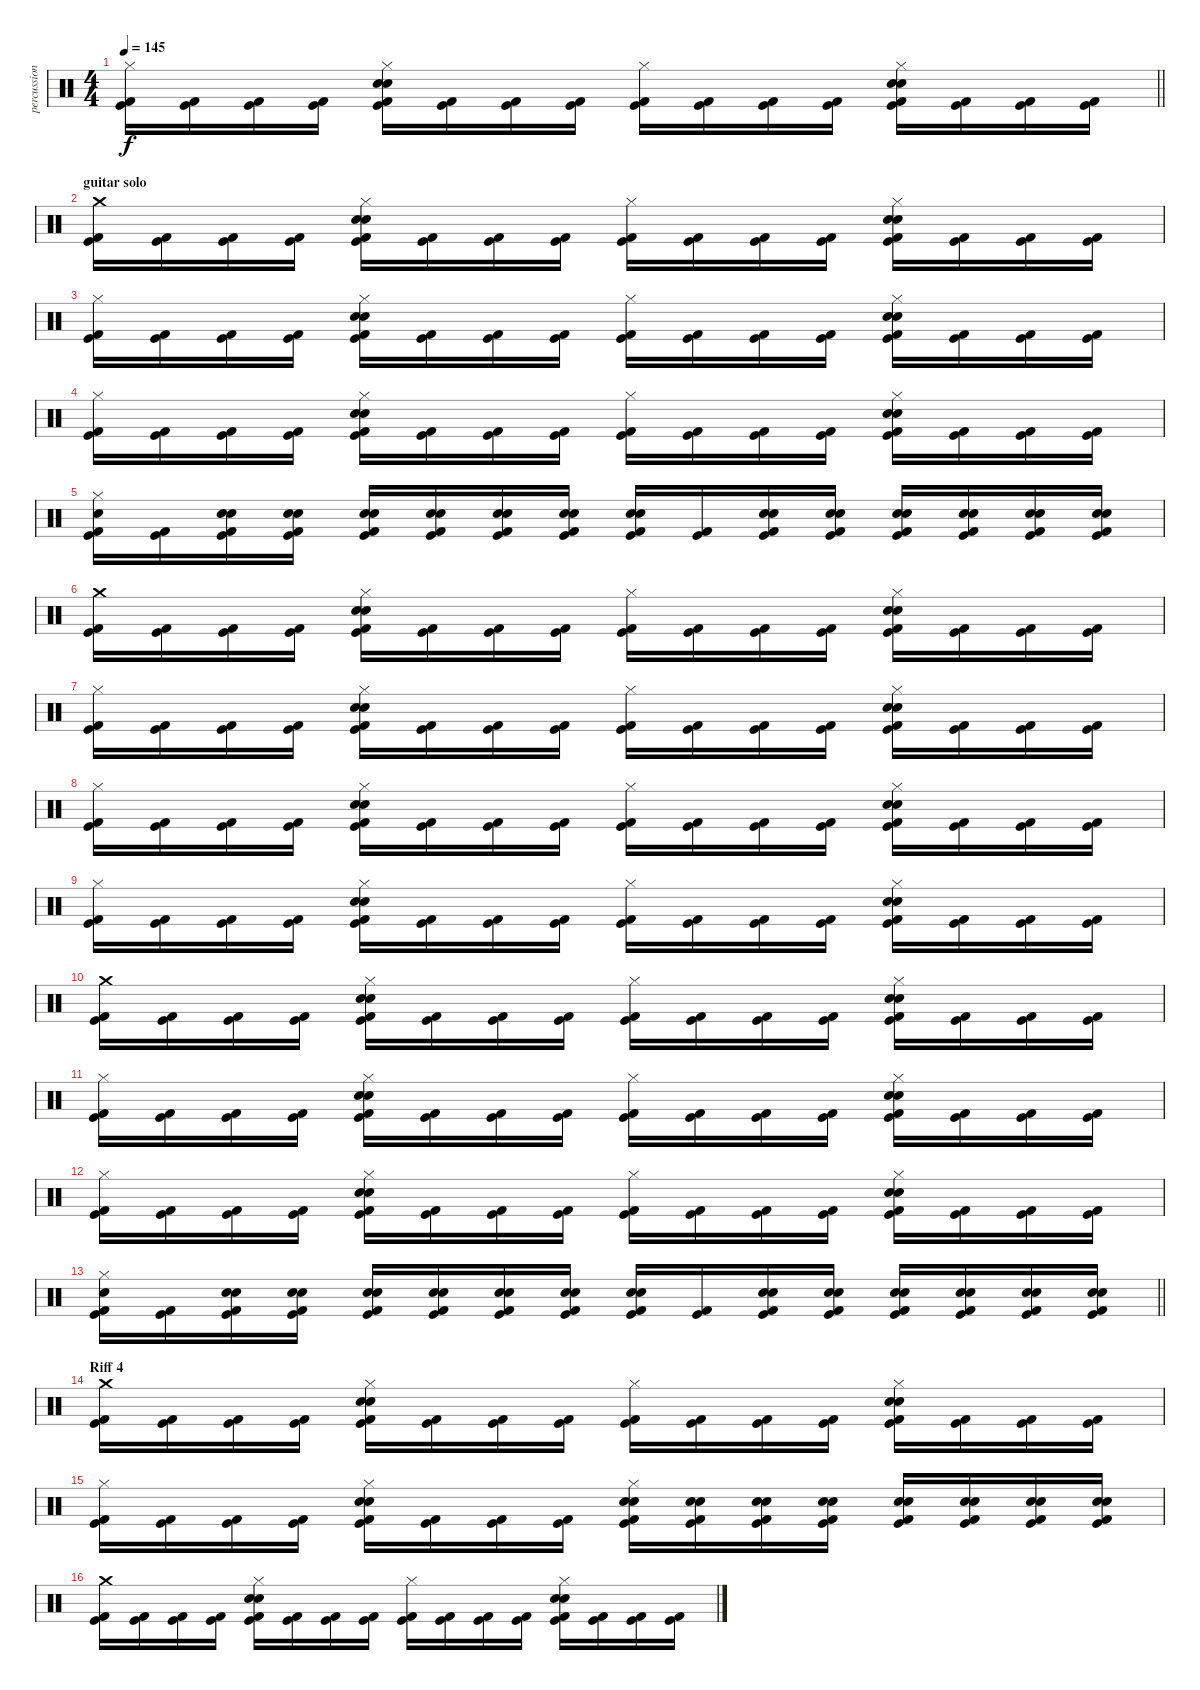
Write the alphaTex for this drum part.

\track ("percussion" "percussion") {instrument percussion}
\staff {score}
\articulation defaults
\ts (4 4)
\tempo 145
\clef neutral
\barLineRight lightlight
\ks c
("Hi-Hat (closed)" "Kick (hit) 2" "Kick (hit)").16{dy f} ("Kick (hit) 2" "Kick (hit)").16 ("Kick (hit) 2" "Kick (hit)").16 ("Kick (hit) 2" "Kick (hit)").16 ("Hi-Hat (closed)" "Electric Snare (hit)" "Snare (hit) 2" "Kick (hit) 2" "Kick (hit)").16 ("Kick (hit) 2" "Kick (hit)").16 ("Kick (hit) 2" "Kick (hit)").16 ("Kick (hit) 2" "Kick (hit)").16 ("Hi-Hat (closed)" "Kick (hit) 2" "Kick (hit)").16 ("Kick (hit) 2" "Kick (hit)").16 ("Kick (hit) 2" "Kick (hit)").16 ("Kick (hit) 2" "Kick (hit)").16 ("Hi-Hat (closed)" "Electric Snare (hit)" "Snare (hit) 2" "Kick (hit) 2" "Kick (hit)").16 ("Kick (hit) 2" "Kick (hit)").16 ("Kick (hit) 2" "Kick (hit)").16 ("Kick (hit) 2" "Kick (hit)").16 |
\section ("" "guitar solo")
("Crash medium (hit)" "Kick (hit) 2" "Kick (hit)").16 ("Kick (hit) 2" "Kick (hit)").16 ("Kick (hit) 2" "Kick (hit)").16 ("Kick (hit) 2" "Kick (hit)").16 ("Hi-Hat (closed)" "Electric Snare (hit)" "Snare (hit) 2" "Kick (hit) 2" "Kick (hit)").16 ("Kick (hit) 2" "Kick (hit)").16 ("Kick (hit) 2" "Kick (hit)").16 ("Kick (hit) 2" "Kick (hit)").16 ("Hi-Hat (closed)" "Kick (hit) 2" "Kick (hit)").16 ("Kick (hit) 2" "Kick (hit)").16 ("Kick (hit) 2" "Kick (hit)").16 ("Kick (hit) 2" "Kick (hit)").16 ("Hi-Hat (closed)" "Electric Snare (hit)" "Snare (hit) 2" "Kick (hit) 2" "Kick (hit)").16 ("Kick (hit) 2" "Kick (hit)").16 ("Kick (hit) 2" "Kick (hit)").16 ("Kick (hit) 2" "Kick (hit)").16 |
("Hi-Hat (closed)" "Kick (hit) 2" "Kick (hit)").16 ("Kick (hit) 2" "Kick (hit)").16 ("Kick (hit) 2" "Kick (hit)").16 ("Kick (hit) 2" "Kick (hit)").16 ("Hi-Hat (closed)" "Electric Snare (hit)" "Snare (hit) 2" "Kick (hit) 2" "Kick (hit)").16 ("Kick (hit) 2" "Kick (hit)").16 ("Kick (hit) 2" "Kick (hit)").16 ("Kick (hit) 2" "Kick (hit)").16 ("Hi-Hat (closed)" "Kick (hit) 2" "Kick (hit)").16 ("Kick (hit) 2" "Kick (hit)").16 ("Kick (hit) 2" "Kick (hit)").16 ("Kick (hit) 2" "Kick (hit)").16 ("Hi-Hat (closed)" "Electric Snare (hit)" "Snare (hit) 2" "Kick (hit) 2" "Kick (hit)").16 ("Kick (hit) 2" "Kick (hit)").16 ("Kick (hit) 2" "Kick (hit)").16 ("Kick (hit) 2" "Kick (hit)").16 |
("Hi-Hat (closed)" "Kick (hit) 2" "Kick (hit)").16 ("Kick (hit) 2" "Kick (hit)").16 ("Kick (hit) 2" "Kick (hit)").16 ("Kick (hit) 2" "Kick (hit)").16 ("Hi-Hat (closed)" "Electric Snare (hit)" "Snare (hit) 2" "Kick (hit) 2" "Kick (hit)").16 ("Kick (hit) 2" "Kick (hit)").16 ("Kick (hit) 2" "Kick (hit)").16 ("Kick (hit) 2" "Kick (hit)").16 ("Hi-Hat (closed)" "Kick (hit) 2" "Kick (hit)").16 ("Kick (hit) 2" "Kick (hit)").16 ("Kick (hit) 2" "Kick (hit)").16 ("Kick (hit) 2" "Kick (hit)").16 ("Hi-Hat (closed)" "Electric Snare (hit)" "Snare (hit) 2" "Kick (hit) 2" "Kick (hit)").16 ("Kick (hit) 2" "Kick (hit)").16 ("Kick (hit) 2" "Kick (hit)").16 ("Kick (hit) 2" "Kick (hit)").16 |
("Hi-Hat (closed)" "Electric Snare (hit)" "Kick (hit) 2" "Kick (hit)").16 ("Kick (hit) 2" "Kick (hit)").16 ("Electric Snare (hit)" "Snare (hit) 2" "Kick (hit) 2" "Kick (hit)").16 ("Electric Snare (hit)" "Snare (hit) 2" "Kick (hit) 2" "Kick (hit)").16 ("Electric Snare (hit)" "Snare (hit) 2" "Kick (hit) 2" "Kick (hit)").16 ("Electric Snare (hit)" "Snare (hit) 2" "Kick (hit) 2" "Kick (hit)").16 ("Electric Snare (hit)" "Snare (hit) 2" "Kick (hit) 2" "Kick (hit)").16 ("Electric Snare (hit)" "Snare (hit) 2" "Kick (hit) 2" "Kick (hit)").16 ("Electric Snare (hit)" "Snare (hit) 2" "Kick (hit) 2" "Kick (hit)").16 ("Kick (hit) 2" "Kick (hit)").16 ("Electric Snare (hit)" "Snare (hit) 2" "Kick (hit) 2" "Kick (hit)").16 ("Electric Snare (hit)" "Snare (hit) 2" "Kick (hit) 2" "Kick (hit)").16 ("Electric Snare (hit)" "Snare (hit) 2" "Kick (hit) 2" "Kick (hit)").16 ("Electric Snare (hit)" "Snare (hit) 2" "Kick (hit) 2" "Kick (hit)").16 ("Electric Snare (hit)" "Snare (hit) 2" "Kick (hit) 2" "Kick (hit)").16 ("Electric Snare (hit)" "Snare (hit) 2" "Kick (hit) 2" "Kick (hit)").16 |
("Crash medium (hit)" "Kick (hit) 2" "Kick (hit)").16 ("Kick (hit) 2" "Kick (hit)").16 ("Kick (hit) 2" "Kick (hit)").16 ("Kick (hit) 2" "Kick (hit)").16 ("Hi-Hat (closed)" "Electric Snare (hit)" "Snare (hit) 2" "Kick (hit) 2" "Kick (hit)").16 ("Kick (hit) 2" "Kick (hit)").16 ("Kick (hit) 2" "Kick (hit)").16 ("Kick (hit) 2" "Kick (hit)").16 ("Hi-Hat (closed)" "Kick (hit) 2" "Kick (hit)").16 ("Kick (hit) 2" "Kick (hit)").16 ("Kick (hit) 2" "Kick (hit)").16 ("Kick (hit) 2" "Kick (hit)").16 ("Hi-Hat (closed)" "Electric Snare (hit)" "Snare (hit) 2" "Kick (hit) 2" "Kick (hit)").16 ("Kick (hit) 2" "Kick (hit)").16 ("Kick (hit) 2" "Kick (hit)").16 ("Kick (hit) 2" "Kick (hit)").16 |
("Hi-Hat (closed)" "Kick (hit) 2" "Kick (hit)").16 ("Kick (hit) 2" "Kick (hit)").16 ("Kick (hit) 2" "Kick (hit)").16 ("Kick (hit) 2" "Kick (hit)").16 ("Hi-Hat (closed)" "Electric Snare (hit)" "Snare (hit) 2" "Kick (hit) 2" "Kick (hit)").16 ("Kick (hit) 2" "Kick (hit)").16 ("Kick (hit) 2" "Kick (hit)").16 ("Kick (hit) 2" "Kick (hit)").16 ("Hi-Hat (closed)" "Kick (hit) 2" "Kick (hit)").16 ("Kick (hit) 2" "Kick (hit)").16 ("Kick (hit) 2" "Kick (hit)").16 ("Kick (hit) 2" "Kick (hit)").16 ("Hi-Hat (closed)" "Electric Snare (hit)" "Snare (hit) 2" "Kick (hit) 2" "Kick (hit)").16 ("Kick (hit) 2" "Kick (hit)").16 ("Kick (hit) 2" "Kick (hit)").16 ("Kick (hit) 2" "Kick (hit)").16 |
("Hi-Hat (closed)" "Kick (hit) 2" "Kick (hit)").16 ("Kick (hit) 2" "Kick (hit)").16 ("Kick (hit) 2" "Kick (hit)").16 ("Kick (hit) 2" "Kick (hit)").16 ("Hi-Hat (closed)" "Electric Snare (hit)" "Snare (hit) 2" "Kick (hit) 2" "Kick (hit)").16 ("Kick (hit) 2" "Kick (hit)").16 ("Kick (hit) 2" "Kick (hit)").16 ("Kick (hit) 2" "Kick (hit)").16 ("Hi-Hat (closed)" "Kick (hit) 2" "Kick (hit)").16 ("Kick (hit) 2" "Kick (hit)").16 ("Kick (hit) 2" "Kick (hit)").16 ("Kick (hit) 2" "Kick (hit)").16 ("Hi-Hat (closed)" "Electric Snare (hit)" "Snare (hit) 2" "Kick (hit) 2" "Kick (hit)").16 ("Kick (hit) 2" "Kick (hit)").16 ("Kick (hit) 2" "Kick (hit)").16 ("Kick (hit) 2" "Kick (hit)").16 |
("Hi-Hat (closed)" "Kick (hit) 2" "Kick (hit)").16 ("Kick (hit) 2" "Kick (hit)").16 ("Kick (hit) 2" "Kick (hit)").16 ("Kick (hit) 2" "Kick (hit)").16 ("Hi-Hat (closed)" "Electric Snare (hit)" "Snare (hit) 2" "Kick (hit) 2" "Kick (hit)").16 ("Kick (hit) 2" "Kick (hit)").16 ("Kick (hit) 2" "Kick (hit)").16 ("Kick (hit) 2" "Kick (hit)").16 ("Hi-Hat (closed)" "Kick (hit) 2" "Kick (hit)").16 ("Kick (hit) 2" "Kick (hit)").16 ("Kick (hit) 2" "Kick (hit)").16 ("Kick (hit) 2" "Kick (hit)").16 ("Hi-Hat (closed)" "Electric Snare (hit)" "Snare (hit) 2" "Kick (hit) 2" "Kick (hit)").16 ("Kick (hit) 2" "Kick (hit)").16 ("Kick (hit) 2" "Kick (hit)").16 ("Kick (hit) 2" "Kick (hit)").16 |
("Crash medium (hit)" "Kick (hit) 2" "Kick (hit)").16 ("Kick (hit) 2" "Kick (hit)").16 ("Kick (hit) 2" "Kick (hit)").16 ("Kick (hit) 2" "Kick (hit)").16 ("Hi-Hat (closed)" "Electric Snare (hit)" "Snare (hit) 2" "Kick (hit) 2" "Kick (hit)").16 ("Kick (hit) 2" "Kick (hit)").16 ("Kick (hit) 2" "Kick (hit)").16 ("Kick (hit) 2" "Kick (hit)").16 ("Hi-Hat (closed)" "Kick (hit) 2" "Kick (hit)").16 ("Kick (hit) 2" "Kick (hit)").16 ("Kick (hit) 2" "Kick (hit)").16 ("Kick (hit) 2" "Kick (hit)").16 ("Hi-Hat (closed)" "Electric Snare (hit)" "Snare (hit) 2" "Kick (hit) 2" "Kick (hit)").16 ("Kick (hit) 2" "Kick (hit)").16 ("Kick (hit) 2" "Kick (hit)").16 ("Kick (hit) 2" "Kick (hit)").16 |
("Hi-Hat (closed)" "Kick (hit) 2" "Kick (hit)").16 ("Kick (hit) 2" "Kick (hit)").16 ("Kick (hit) 2" "Kick (hit)").16 ("Kick (hit) 2" "Kick (hit)").16 ("Hi-Hat (closed)" "Electric Snare (hit)" "Snare (hit) 2" "Kick (hit) 2" "Kick (hit)").16 ("Kick (hit) 2" "Kick (hit)").16 ("Kick (hit) 2" "Kick (hit)").16 ("Kick (hit) 2" "Kick (hit)").16 ("Hi-Hat (closed)" "Kick (hit) 2" "Kick (hit)").16 ("Kick (hit) 2" "Kick (hit)").16 ("Kick (hit) 2" "Kick (hit)").16 ("Kick (hit) 2" "Kick (hit)").16 ("Hi-Hat (closed)" "Electric Snare (hit)" "Snare (hit) 2" "Kick (hit) 2" "Kick (hit)").16 ("Kick (hit) 2" "Kick (hit)").16 ("Kick (hit) 2" "Kick (hit)").16 ("Kick (hit) 2" "Kick (hit)").16 |
("Hi-Hat (closed)" "Kick (hit) 2" "Kick (hit)").16 ("Kick (hit) 2" "Kick (hit)").16 ("Kick (hit) 2" "Kick (hit)").16 ("Kick (hit) 2" "Kick (hit)").16 ("Hi-Hat (closed)" "Electric Snare (hit)" "Snare (hit) 2" "Kick (hit) 2" "Kick (hit)").16 ("Kick (hit) 2" "Kick (hit)").16 ("Kick (hit) 2" "Kick (hit)").16 ("Kick (hit) 2" "Kick (hit)").16 ("Hi-Hat (closed)" "Kick (hit) 2" "Kick (hit)").16 ("Kick (hit) 2" "Kick (hit)").16 ("Kick (hit) 2" "Kick (hit)").16 ("Kick (hit) 2" "Kick (hit)").16 ("Hi-Hat (closed)" "Electric Snare (hit)" "Snare (hit) 2" "Kick (hit) 2" "Kick (hit)").16 ("Kick (hit) 2" "Kick (hit)").16 ("Kick (hit) 2" "Kick (hit)").16 ("Kick (hit) 2" "Kick (hit)").16 |
\barLineRight lightlight
("Hi-Hat (closed)" "Electric Snare (hit)" "Kick (hit) 2" "Kick (hit)").16 ("Kick (hit) 2" "Kick (hit)").16 ("Electric Snare (hit)" "Snare (hit) 2" "Kick (hit) 2" "Kick (hit)").16 ("Electric Snare (hit)" "Snare (hit) 2" "Kick (hit) 2" "Kick (hit)").16 ("Electric Snare (hit)" "Snare (hit) 2" "Kick (hit) 2" "Kick (hit)").16 ("Electric Snare (hit)" "Snare (hit) 2" "Kick (hit) 2" "Kick (hit)").16 ("Electric Snare (hit)" "Snare (hit) 2" "Kick (hit) 2" "Kick (hit)").16 ("Electric Snare (hit)" "Snare (hit) 2" "Kick (hit) 2" "Kick (hit)").16 ("Electric Snare (hit)" "Snare (hit) 2" "Kick (hit) 2" "Kick (hit)").16 ("Kick (hit) 2" "Kick (hit)").16 ("Electric Snare (hit)" "Snare (hit) 2" "Kick (hit) 2" "Kick (hit)").16 ("Electric Snare (hit)" "Snare (hit) 2" "Kick (hit) 2" "Kick (hit)").16 ("Electric Snare (hit)" "Snare (hit) 2" "Kick (hit) 2" "Kick (hit)").16 ("Electric Snare (hit)" "Snare (hit) 2" "Kick (hit) 2" "Kick (hit)").16 ("Electric Snare (hit)" "Snare (hit) 2" "Kick (hit) 2" "Kick (hit)").16 ("Electric Snare (hit)" "Snare (hit) 2" "Kick (hit) 2" "Kick (hit)").16 |
\section ("" "Riff 4")
("Crash medium (hit)" "Kick (hit) 2" "Kick (hit)").16 ("Kick (hit) 2" "Kick (hit)").16 ("Kick (hit) 2" "Kick (hit)").16 ("Kick (hit) 2" "Kick (hit)").16 ("Hi-Hat (closed)" "Electric Snare (hit)" "Snare (hit) 2" "Kick (hit) 2" "Kick (hit)").16 ("Kick (hit) 2" "Kick (hit)").16 ("Kick (hit) 2" "Kick (hit)").16 ("Kick (hit) 2" "Kick (hit)").16 ("Hi-Hat (closed)" "Kick (hit) 2" "Kick (hit)").16 ("Kick (hit) 2" "Kick (hit)").16 ("Kick (hit) 2" "Kick (hit)").16 ("Kick (hit) 2" "Kick (hit)").16 ("Hi-Hat (closed)" "Electric Snare (hit)" "Snare (hit) 2" "Kick (hit) 2" "Kick (hit)").16 ("Kick (hit) 2" "Kick (hit)").16 ("Kick (hit) 2" "Kick (hit)").16 ("Kick (hit) 2" "Kick (hit)").16 |
("Hi-Hat (closed)" "Kick (hit) 2" "Kick (hit)").16 ("Kick (hit) 2" "Kick (hit)").16 ("Kick (hit) 2" "Kick (hit)").16 ("Kick (hit) 2" "Kick (hit)").16 ("Hi-Hat (closed)" "Electric Snare (hit)" "Snare (hit) 2" "Kick (hit) 2" "Kick (hit)").16 ("Kick (hit) 2" "Kick (hit)").16 ("Kick (hit) 2" "Kick (hit)").16 ("Kick (hit) 2" "Kick (hit)").16 ("Hi-Hat (closed)" "Electric Snare (hit)" "Snare (hit) 2" "Kick (hit) 2" "Kick (hit)").16 ("Electric Snare (hit)" "Snare (hit) 2" "Kick (hit) 2" "Kick (hit)").16 ("Electric Snare (hit)" "Snare (hit) 2" "Kick (hit) 2" "Kick (hit)").16 ("Electric Snare (hit)" "Snare (hit) 2" "Kick (hit) 2" "Kick (hit)").16 ("Electric Snare (hit)" "Snare (hit) 2" "Kick (hit) 2" "Kick (hit)").16 ("Electric Snare (hit)" "Snare (hit) 2" "Kick (hit) 2" "Kick (hit)").16 ("Electric Snare (hit)" "Snare (hit) 2" "Kick (hit) 2" "Kick (hit)").16 ("Electric Snare (hit)" "Snare (hit) 2" "Kick (hit) 2" "Kick (hit)").16 |
("Crash medium (hit)" "Kick (hit) 2" "Kick (hit)").16 ("Kick (hit) 2" "Kick (hit)").16 ("Kick (hit) 2" "Kick (hit)").16 ("Kick (hit) 2" "Kick (hit)").16 ("Hi-Hat (closed)" "Electric Snare (hit)" "Snare (hit) 2" "Kick (hit) 2" "Kick (hit)").16 ("Kick (hit) 2" "Kick (hit)").16 ("Kick (hit) 2" "Kick (hit)").16 ("Kick (hit) 2" "Kick (hit)").16 ("Hi-Hat (closed)" "Kick (hit) 2" "Kick (hit)").16 ("Kick (hit) 2" "Kick (hit)").16 ("Kick (hit) 2" "Kick (hit)").16 ("Kick (hit) 2" "Kick (hit)").16 ("Hi-Hat (closed)" "Electric Snare (hit)" "Snare (hit) 2" "Kick (hit) 2" "Kick (hit)").16 ("Kick (hit) 2" "Kick (hit)").16 ("Kick (hit) 2" "Kick (hit)").16 ("Kick (hit) 2" "Kick (hit)").16
